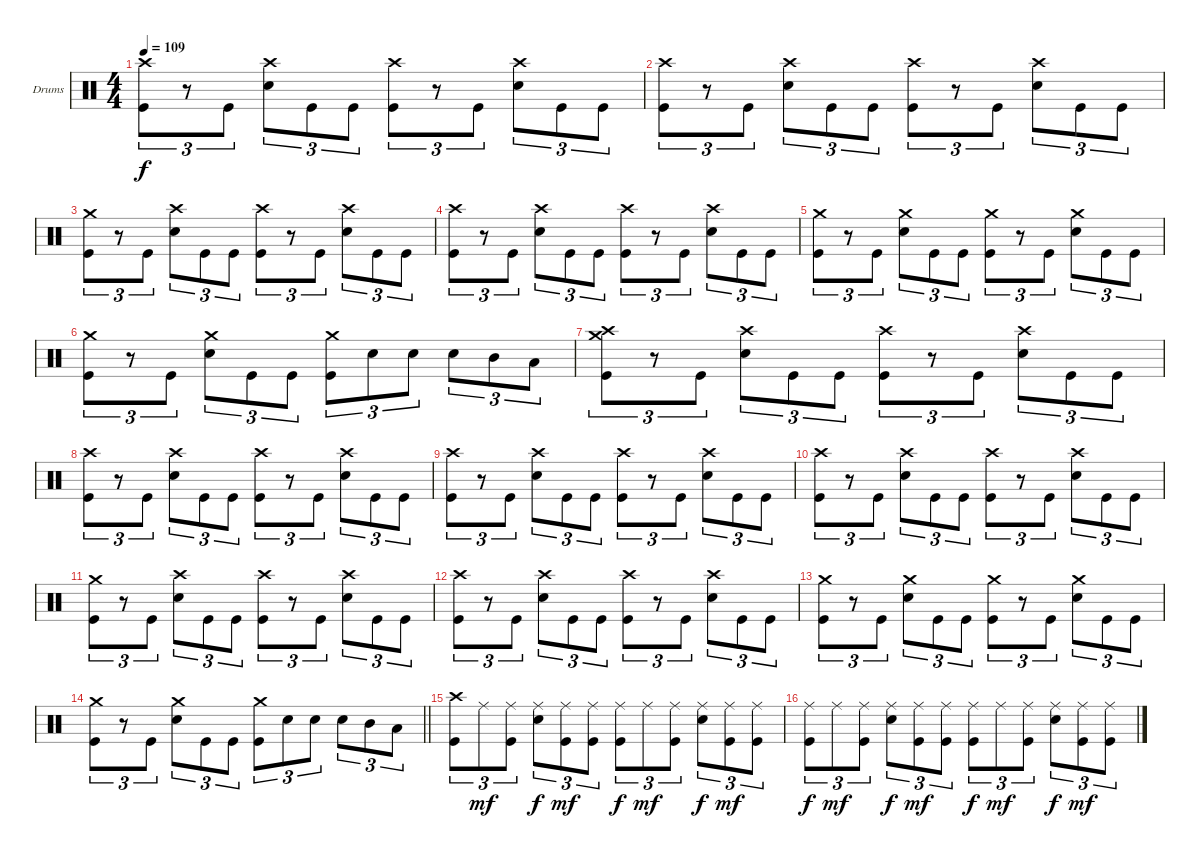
\bracketExtendMode groupsimilarinstruments
\firstSystemTrackNameOrientation horizontal
\otherSystemsTrackNameOrientation horizontal
\track ("Drumkit (Christoph)" "Drums") {instrument percussion}
\staff {score}
\articulation defaults
\ts (4 4)
\tempo 109
\clef neutral
\ks c
("Crash high (hit)" "Kick (hit)").8{tu (3 2) dy f} r.8{tu (3 2)} "Kick (hit)".8{tu (3 2)} ("Crash high (hit)" "Snare (hit) 2").8{tu (3 2)} "Kick (hit)".8{tu (3 2)} "Kick (hit)".8{tu (3 2)} ("Crash high (hit)" "Kick (hit)").8{tu (3 2)} r.8{tu (3 2)} "Kick (hit)".8{tu (3 2)} ("Crash high (hit)" "Snare (hit) 2").8{tu (3 2)} "Kick (hit)".8{tu (3 2)} "Kick (hit)".8{tu (3 2)} |
("Crash high (hit)" "Kick (hit)").8{tu (3 2)} r.8{tu (3 2)} "Kick (hit)".8{tu (3 2)} ("Crash high (hit)" "Snare (hit) 2").8{tu (3 2)} "Kick (hit)".8{tu (3 2)} "Kick (hit)".8{tu (3 2)} ("Crash high (hit)" "Kick (hit)").8{tu (3 2)} r.8{tu (3 2)} "Kick (hit)".8{tu (3 2)} ("Crash high (hit)" "Snare (hit) 2").8{tu (3 2)} "Kick (hit)".8{tu (3 2)} "Kick (hit)".8{tu (3 2)} |
("Crash medium (hit)" "Kick (hit)").8{tu (3 2)} r.8{tu (3 2)} "Kick (hit)".8{tu (3 2)} ("Crash high (hit)" "Snare (hit) 2").8{tu (3 2)} "Kick (hit)".8{tu (3 2)} "Kick (hit)".8{tu (3 2)} ("Crash high (hit)" "Kick (hit)").8{tu (3 2)} r.8{tu (3 2)} "Kick (hit)".8{tu (3 2)} ("Crash high (hit)" "Snare (hit) 2").8{tu (3 2)} "Kick (hit)".8{tu (3 2)} "Kick (hit)".8{tu (3 2)} |
("Crash high (hit)" "Kick (hit)").8{tu (3 2)} r.8{tu (3 2)} "Kick (hit)".8{tu (3 2)} ("Crash high (hit)" "Snare (hit) 2").8{tu (3 2)} "Kick (hit)".8{tu (3 2)} "Kick (hit)".8{tu (3 2)} ("Crash high (hit)" "Kick (hit)").8{tu (3 2)} r.8{tu (3 2)} "Kick (hit)".8{tu (3 2)} ("Crash high (hit)" "Snare (hit) 2").8{tu (3 2)} "Kick (hit)".8{tu (3 2)} "Kick (hit)".8{tu (3 2)} |
("Crash medium (hit)" "Kick (hit)").8{tu (3 2)} r.8{tu (3 2)} "Kick (hit)".8{tu (3 2)} ("Crash medium (hit)" "Snare (hit) 2").8{tu (3 2)} "Kick (hit)".8{tu (3 2)} "Kick (hit)".8{tu (3 2)} ("Crash medium (hit)" "Kick (hit)").8{tu (3 2)} r.8{tu (3 2)} "Kick (hit)".8{tu (3 2)} ("Crash medium (hit)" "Snare (hit) 2").8{tu (3 2)} "Kick (hit)".8{tu (3 2)} "Kick (hit)".8{tu (3 2)} |
("Crash medium (hit)" "Kick (hit)").8{tu (3 2)} r.8{tu (3 2)} "Kick (hit)".8{tu (3 2)} ("Crash medium (hit)" "Snare (hit) 2").8{tu (3 2)} "Kick (hit)".8{tu (3 2)} "Kick (hit)".8{tu (3 2)} ("Crash medium (hit)" "Kick (hit)").8{tu (3 2)} "Snare (hit) 2".8{tu (3 2)} "Snare (hit) 2".8{tu (3 2)} "Snare (hit) 2".8{tu (3 2)} "Mid Tom (hit)".8{tu (3 2)} "Low Tom (hit)".8{tu (3 2)} |
("Crash high (hit)" "Crash medium (hit)" "Kick (hit)").8{tu (3 2)} r.8{tu (3 2)} "Kick (hit)".8{tu (3 2)} ("Crash high (hit)" "Snare (hit) 2").8{tu (3 2)} "Kick (hit)".8{tu (3 2)} "Kick (hit)".8{tu (3 2)} ("Crash high (hit)" "Kick (hit)").8{tu (3 2)} r.8{tu (3 2)} "Kick (hit)".8{tu (3 2)} ("Crash high (hit)" "Snare (hit) 2").8{tu (3 2)} "Kick (hit)".8{tu (3 2)} "Kick (hit)".8{tu (3 2)} |
("Crash high (hit)" "Kick (hit)").8{tu (3 2)} r.8{tu (3 2)} "Kick (hit)".8{tu (3 2)} ("Crash high (hit)" "Snare (hit) 2").8{tu (3 2)} "Kick (hit)".8{tu (3 2)} "Kick (hit)".8{tu (3 2)} ("Crash high (hit)" "Kick (hit)").8{tu (3 2)} r.8{tu (3 2)} "Kick (hit)".8{tu (3 2)} ("Crash high (hit)" "Snare (hit) 2").8{tu (3 2)} "Kick (hit)".8{tu (3 2)} "Kick (hit)".8{tu (3 2)} |
("Crash high (hit)" "Kick (hit)").8{tu (3 2)} r.8{tu (3 2)} "Kick (hit)".8{tu (3 2)} ("Crash high (hit)" "Snare (hit) 2").8{tu (3 2)} "Kick (hit)".8{tu (3 2)} "Kick (hit)".8{tu (3 2)} ("Crash high (hit)" "Kick (hit)").8{tu (3 2)} r.8{tu (3 2)} "Kick (hit)".8{tu (3 2)} ("Crash high (hit)" "Snare (hit) 2").8{tu (3 2)} "Kick (hit)".8{tu (3 2)} "Kick (hit)".8{tu (3 2)} |
("Crash high (hit)" "Kick (hit)").8{tu (3 2)} r.8{tu (3 2)} "Kick (hit)".8{tu (3 2)} ("Crash high (hit)" "Snare (hit) 2").8{tu (3 2)} "Kick (hit)".8{tu (3 2)} "Kick (hit)".8{tu (3 2)} ("Crash high (hit)" "Kick (hit)").8{tu (3 2)} r.8{tu (3 2)} "Kick (hit)".8{tu (3 2)} ("Crash high (hit)" "Snare (hit) 2").8{tu (3 2)} "Kick (hit)".8{tu (3 2)} "Kick (hit)".8{tu (3 2)} |
("Crash medium (hit)" "Kick (hit)").8{tu (3 2)} r.8{tu (3 2)} "Kick (hit)".8{tu (3 2)} ("Crash high (hit)" "Snare (hit) 2").8{tu (3 2)} "Kick (hit)".8{tu (3 2)} "Kick (hit)".8{tu (3 2)} ("Crash high (hit)" "Kick (hit)").8{tu (3 2)} r.8{tu (3 2)} "Kick (hit)".8{tu (3 2)} ("Crash high (hit)" "Snare (hit) 2").8{tu (3 2)} "Kick (hit)".8{tu (3 2)} "Kick (hit)".8{tu (3 2)} |
("Crash high (hit)" "Kick (hit)").8{tu (3 2)} r.8{tu (3 2)} "Kick (hit)".8{tu (3 2)} ("Crash high (hit)" "Snare (hit) 2").8{tu (3 2)} "Kick (hit)".8{tu (3 2)} "Kick (hit)".8{tu (3 2)} ("Crash high (hit)" "Kick (hit)").8{tu (3 2)} r.8{tu (3 2)} "Kick (hit)".8{tu (3 2)} ("Crash high (hit)" "Snare (hit) 2").8{tu (3 2)} "Kick (hit)".8{tu (3 2)} "Kick (hit)".8{tu (3 2)} |
("Crash medium (hit)" "Kick (hit)").8{tu (3 2)} r.8{tu (3 2)} "Kick (hit)".8{tu (3 2)} ("Crash medium (hit)" "Snare (hit) 2").8{tu (3 2)} "Kick (hit)".8{tu (3 2)} "Kick (hit)".8{tu (3 2)} ("Crash medium (hit)" "Kick (hit)").8{tu (3 2)} r.8{tu (3 2)} "Kick (hit)".8{tu (3 2)} ("Crash medium (hit)" "Snare (hit) 2").8{tu (3 2)} "Kick (hit)".8{tu (3 2)} "Kick (hit)".8{tu (3 2)} |
\barLineRight lightlight
("Crash medium (hit)" "Kick (hit)").8{tu (3 2)} r.8{tu (3 2)} "Kick (hit)".8{tu (3 2)} ("Crash medium (hit)" "Snare (hit) 2").8{tu (3 2)} "Kick (hit)".8{tu (3 2)} "Kick (hit)".8{tu (3 2)} ("Crash medium (hit)" "Kick (hit)").8{tu (3 2)} "Snare (hit) 2".8{tu (3 2)} "Snare (hit) 2".8{tu (3 2)} "Snare (hit) 2".8{tu (3 2)} "Mid Tom (hit)".8{tu (3 2)} "Low Tom (hit)".8{tu (3 2)} |
("Crash high (hit)" "Kick (hit)").8{tu (3 2)} "Ride (middle)".8{tu (3 2) dy mf} ("Ride (middle)" "Kick (hit)").8{tu (3 2)} ("Ride (middle)" "Snare (hit) 2").8{tu (3 2) dy f} ("Ride (middle)" "Kick (hit)").8{tu (3 2) dy mf} ("Ride (middle)" "Kick (hit)").8{tu (3 2)} ("Ride (middle)" "Kick (hit)").8{tu (3 2) dy f} "Ride (middle)".8{tu (3 2) dy mf} ("Ride (middle)" "Kick (hit)").8{tu (3 2)} ("Ride (middle)" "Snare (hit) 2").8{tu (3 2) dy f} ("Ride (middle)" "Kick (hit)").8{tu (3 2) dy mf} ("Ride (middle)" "Kick (hit)").8{tu (3 2)} |
("Ride (middle)" "Kick (hit)").8{tu (3 2) dy f} "Ride (middle)".8{tu (3 2) dy mf} ("Ride (middle)" "Kick (hit)").8{tu (3 2)} ("Ride (middle)" "Snare (hit) 2").8{tu (3 2) dy f} ("Ride (middle)" "Kick (hit)").8{tu (3 2) dy mf} ("Ride (middle)" "Kick (hit)").8{tu (3 2)} ("Ride (middle)" "Kick (hit)").8{tu (3 2) dy f} "Ride (middle)".8{tu (3 2) dy mf} ("Ride (middle)" "Kick (hit)").8{tu (3 2)} ("Ride (middle)" "Snare (hit) 2").8{tu (3 2) dy f} ("Ride (middle)" "Kick (hit)").8{tu (3 2) dy mf} ("Ride (middle)" "Kick (hit)").8{tu (3 2)}
